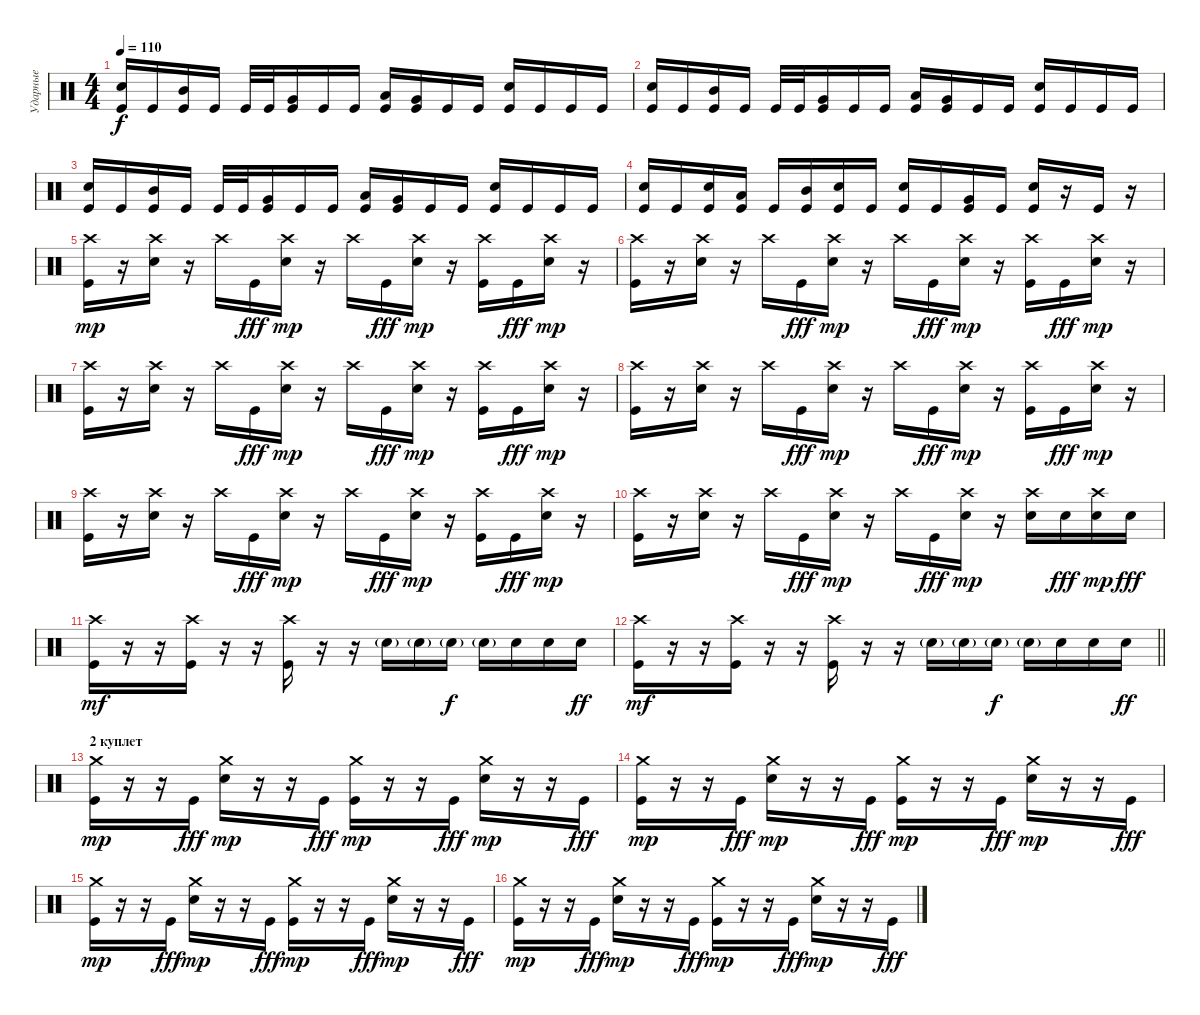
\track ("Ударные" "Ударные") {instrument percussion}
\staff {score}
\articulation defaults
\ts (4 4)
\tempo 110
\clef neutral
\ks c
("Electric Snare (hit)" "Kick (hit)").16{dy f} "Kick (hit)".16 ("Mid Tom (hit)" "Kick (hit)").16 "Kick (hit)".16 "Kick (hit)".32 "Kick (hit)".32 ("Very Low Tom (hit)" "Kick (hit)").16 "Kick (hit)".16 "Kick (hit)".16 ("Low Tom (hit)" "Kick (hit)").16 ("Very Low Tom (hit)" "Kick (hit)").16 "Kick (hit)".16 "Kick (hit)".16 ("Electric Snare (hit)" "Kick (hit)").16 "Kick (hit)".16 "Kick (hit)".16 "Kick (hit)".16 |
("Electric Snare (hit)" "Kick (hit)").16 "Kick (hit)".16 ("Mid Tom (hit)" "Kick (hit)").16 "Kick (hit)".16 "Kick (hit)".32 "Kick (hit)".32 ("Very Low Tom (hit)" "Kick (hit)").16 "Kick (hit)".16 "Kick (hit)".16 ("Low Tom (hit)" "Kick (hit)").16 ("Very Low Tom (hit)" "Kick (hit)").16 "Kick (hit)".16 "Kick (hit)".16 ("Electric Snare (hit)" "Kick (hit)").16 "Kick (hit)".16 "Kick (hit)".16 "Kick (hit)".16 |
("Electric Snare (hit)" "Kick (hit)").16 "Kick (hit)".16 ("Mid Tom (hit)" "Kick (hit)").16 "Kick (hit)".16 "Kick (hit)".32 "Kick (hit)".32 ("Very Low Tom (hit)" "Kick (hit)").16 "Kick (hit)".16 "Kick (hit)".16 ("Low Tom (hit)" "Kick (hit)").16 ("Very Low Tom (hit)" "Kick (hit)").16 "Kick (hit)".16 "Kick (hit)".16 ("Electric Snare (hit)" "Kick (hit)").16 "Kick (hit)".16 "Kick (hit)".16 "Kick (hit)".16 |
("Electric Snare (hit)" "Kick (hit)").16 "Kick (hit)".16 ("Electric Snare (hit)" "Kick (hit)").16 ("Low Tom (hit)" "Kick (hit)").16 "Kick (hit)".16 ("Mid Tom (hit)" "Kick (hit)").16 ("Electric Snare (hit)" "Kick (hit)").16 "Kick (hit)".16 ("Electric Snare (hit)" "Kick (hit)").16 "Kick (hit)".16 ("Very Low Tom (hit)" "Kick (hit)").16 "Kick (hit)".16 ("Electric Snare (hit)" "Kick (hit)").16 r.16 "Kick (hit)".16 r.16 |
("Kick (hit)" "Crash high (hit)").16{dy mp} r.16 ("Electric Snare (hit)" "Crash high (hit)").16 r.16 "Crash high (hit)".16 "Kick (hit)".16{dy fff} ("Electric Snare (hit)" "Crash high (hit)").16{dy mp} r.16 "Crash high (hit)".16 "Kick (hit)".16{dy fff} ("Electric Snare (hit)" "Crash high (hit)").16{dy mp} r.16 ("Kick (hit)" "Crash high (hit)").16 "Kick (hit)".16{dy fff} ("Electric Snare (hit)" "Crash high (hit)").16{dy mp} r.16 |
("Kick (hit)" "Crash high (hit)").16 r.16 ("Electric Snare (hit)" "Crash high (hit)").16 r.16 "Crash high (hit)".16 "Kick (hit)".16{dy fff} ("Electric Snare (hit)" "Crash high (hit)").16{dy mp} r.16 "Crash high (hit)".16 "Kick (hit)".16{dy fff} ("Electric Snare (hit)" "Crash high (hit)").16{dy mp} r.16 ("Kick (hit)" "Crash high (hit)").16 "Kick (hit)".16{dy fff} ("Electric Snare (hit)" "Crash high (hit)").16{dy mp} r.16 |
("Kick (hit)" "Crash high (hit)").16 r.16 ("Electric Snare (hit)" "Crash high (hit)").16 r.16 "Crash high (hit)".16 "Kick (hit)".16{dy fff} ("Electric Snare (hit)" "Crash high (hit)").16{dy mp} r.16 "Crash high (hit)".16 "Kick (hit)".16{dy fff} ("Electric Snare (hit)" "Crash high (hit)").16{dy mp} r.16 ("Kick (hit)" "Crash high (hit)").16 "Kick (hit)".16{dy fff} ("Electric Snare (hit)" "Crash high (hit)").16{dy mp} r.16 |
("Kick (hit)" "Crash high (hit)").16 r.16 ("Electric Snare (hit)" "Crash high (hit)").16 r.16 "Crash high (hit)".16 "Kick (hit)".16{dy fff} ("Electric Snare (hit)" "Crash high (hit)").16{dy mp} r.16 "Crash high (hit)".16 "Kick (hit)".16{dy fff} ("Electric Snare (hit)" "Crash high (hit)").16{dy mp} r.16 ("Kick (hit)" "Crash high (hit)").16 "Kick (hit)".16{dy fff} ("Electric Snare (hit)" "Crash high (hit)").16{dy mp} r.16 |
("Kick (hit)" "Crash high (hit)").16 r.16 ("Electric Snare (hit)" "Crash high (hit)").16 r.16 "Crash high (hit)".16 "Kick (hit)".16{dy fff} ("Electric Snare (hit)" "Crash high (hit)").16{dy mp} r.16 "Crash high (hit)".16 "Kick (hit)".16{dy fff} ("Electric Snare (hit)" "Crash high (hit)").16{dy mp} r.16 ("Kick (hit)" "Crash high (hit)").16 "Kick (hit)".16{dy fff} ("Electric Snare (hit)" "Crash high (hit)").16{dy mp} r.16 |
("Kick (hit)" "Crash high (hit)").16 r.16 ("Electric Snare (hit)" "Crash high (hit)").16 r.16 "Crash high (hit)".16 "Kick (hit)".16{dy fff} ("Electric Snare (hit)" "Crash high (hit)").16{dy mp} r.16 "Crash high (hit)".16 "Kick (hit)".16{dy fff} ("Electric Snare (hit)" "Crash high (hit)").16{dy mp} r.16 ("Electric Snare (hit)" "Crash high (hit)").16 "Electric Snare (hit)".16{dy fff} ("Electric Snare (hit)" "Crash high (hit)").16{dy mp} "Electric Snare (hit)".16{dy fff} |
("Kick (hit)" "Crash high (hit)").16{dy mf} r.16 r.16 ("Kick (hit)" "Crash high (hit)").16 r.16 r.16 ("Kick (hit)" "Crash high (hit)").16 r.16 r.16 "Electric Snare (hit)"{g}.16 "Electric Snare (hit)"{g}.16 "Electric Snare (hit)"{g}.16{dy f} "Electric Snare (hit)"{g}.16 "Electric Snare (hit)".16 "Electric Snare (hit)".16 "Electric Snare (hit)".16{dy ff} |
\barLineRight lightlight
("Kick (hit)" "Crash high (hit)").16{dy mf} r.16 r.16 ("Kick (hit)" "Crash high (hit)").16 r.16 r.16 ("Kick (hit)" "Crash high (hit)").16 r.16 r.16 "Electric Snare (hit)"{g}.16 "Electric Snare (hit)"{g}.16 "Electric Snare (hit)"{g}.16{dy f} "Electric Snare (hit)"{g}.16 "Electric Snare (hit)".16 "Electric Snare (hit)".16 "Electric Snare (hit)".16{dy ff} |
\section ("" "2 куплет")
("Kick (hit)" "Crash medium (hit)").16{dy mp} r.16 r.16 "Kick (hit)".16{dy fff} ("Electric Snare (hit)" "Crash medium (hit)").16{dy mp} r.16 r.16 "Kick (hit)".16{dy fff} ("Kick (hit)" "Crash medium (hit)").16{dy mp} r.16 r.16 "Kick (hit)".16{dy fff} ("Electric Snare (hit)" "Crash medium (hit)").16{dy mp} r.16 r.16 "Kick (hit)".16{dy fff} |
("Kick (hit)" "Crash medium (hit)").16{dy mp} r.16 r.16 "Kick (hit)".16{dy fff} ("Electric Snare (hit)" "Crash medium (hit)").16{dy mp} r.16 r.16 "Kick (hit)".16{dy fff} ("Kick (hit)" "Crash medium (hit)").16{dy mp} r.16 r.16 "Kick (hit)".16{dy fff} ("Electric Snare (hit)" "Crash medium (hit)").16{dy mp} r.16 r.16 "Kick (hit)".16{dy fff} |
("Kick (hit)" "Crash medium (hit)").16{dy mp} r.16 r.16 "Kick (hit)".16{dy fff} ("Electric Snare (hit)" "Crash medium (hit)").16{dy mp} r.16 r.16 "Kick (hit)".16{dy fff} ("Kick (hit)" "Crash medium (hit)").16{dy mp} r.16 r.16 "Kick (hit)".16{dy fff} ("Electric Snare (hit)" "Crash medium (hit)").16{dy mp} r.16 r.16 "Kick (hit)".16{dy fff} |
("Kick (hit)" "Crash medium (hit)").16{dy mp} r.16 r.16 "Kick (hit)".16{dy fff} ("Electric Snare (hit)" "Crash medium (hit)").16{dy mp} r.16 r.16 "Kick (hit)".16{dy fff} ("Kick (hit)" "Crash medium (hit)").16{dy mp} r.16 r.16 "Kick (hit)".16{dy fff} ("Electric Snare (hit)" "Crash medium (hit)").16{dy mp} r.16 r.16 "Kick (hit)".16{dy fff}
